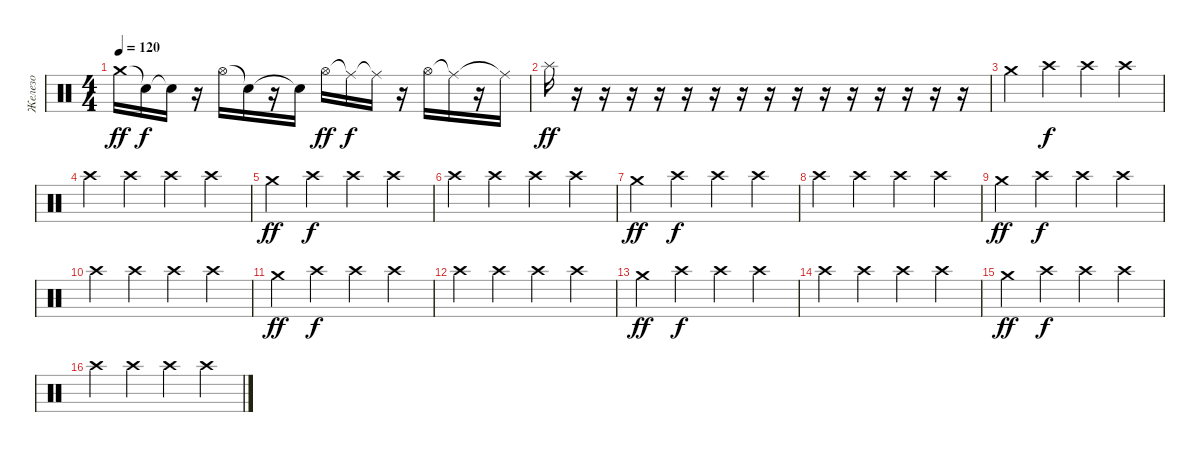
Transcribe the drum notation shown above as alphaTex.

\track ("Железо" "Железо") {instrument percussion}
\staff {score}
\articulation defaults
\ts (4 4)
\tempo 120
\clef neutral
\ks c "Crash medium (hit)".16{dy ff} "Snare (hit)"{t}.16{dy f} "Snare (hit)"{t}.16
r.16 "Hi-Hat (open)".16 "Snare (hit)"{t}.16 r.16 "Snare (hit)"{t}.16 "Hi-Hat (open)".16{dy ff} "Ride (middle)"{t}.16{dy f} "Ride (middle)"{t}.16 r.16 "Hi-Hat (open)".16 "Ride (middle)"{t}.16 r.16 "Ride (middle)"{t}.16 |
"Splash (hit)".16{dy ff} r.16 r.16 r.16 r.16 r.16 r.16 r.16 r.16 r.16 r.16 r.16 r.16 r.16 r.16 r.16 |
"Crash medium (hit)".4 "Crash high (hit)".4{dy f} "Crash high (hit)".4 "Crash high (hit)".4 |
"Crash high (hit)".4 "Crash high (hit)".4 "Crash high (hit)".4 "Crash high (hit)".4 |
"Crash medium (hit)".4{dy ff} "Crash high (hit)".4{dy f} "Crash high (hit)".4 "Crash high (hit)".4 |
"Crash high (hit)".4 "Crash high (hit)".4 "Crash high (hit)".4 "Crash high (hit)".4 |
"Crash medium (hit)".4{dy ff} "Crash high (hit)".4{dy f} "Crash high (hit)".4 "Crash high (hit)".4 |
"Crash high (hit)".4 "Crash high (hit)".4 "Crash high (hit)".4 "Crash high (hit)".4 |
"Crash medium (hit)".4{dy ff} "Crash high (hit)".4{dy f} "Crash high (hit)".4 "Crash high (hit)".4 |
"Crash high (hit)".4 "Crash high (hit)".4 "Crash high (hit)".4 "Crash high (hit)".4 |
"Crash medium (hit)".4{dy ff} "Crash high (hit)".4{dy f} "Crash high (hit)".4 "Crash high (hit)".4 |
"Crash high (hit)".4 "Crash high (hit)".4 "Crash high (hit)".4 "Crash high (hit)".4 |
"Crash medium (hit)".4{dy ff} "Crash high (hit)".4{dy f} "Crash high (hit)".4 "Crash high (hit)".4 |
"Crash high (hit)".4 "Crash high (hit)".4 "Crash high (hit)".4 "Crash high (hit)".4 |
"Crash medium (hit)".4{dy ff} "Crash high (hit)".4{dy f} "Crash high (hit)".4 "Crash high (hit)".4 |
"Crash high (hit)".4 "Crash high (hit)".4 "Crash high (hit)".4 "Crash high (hit)".4
